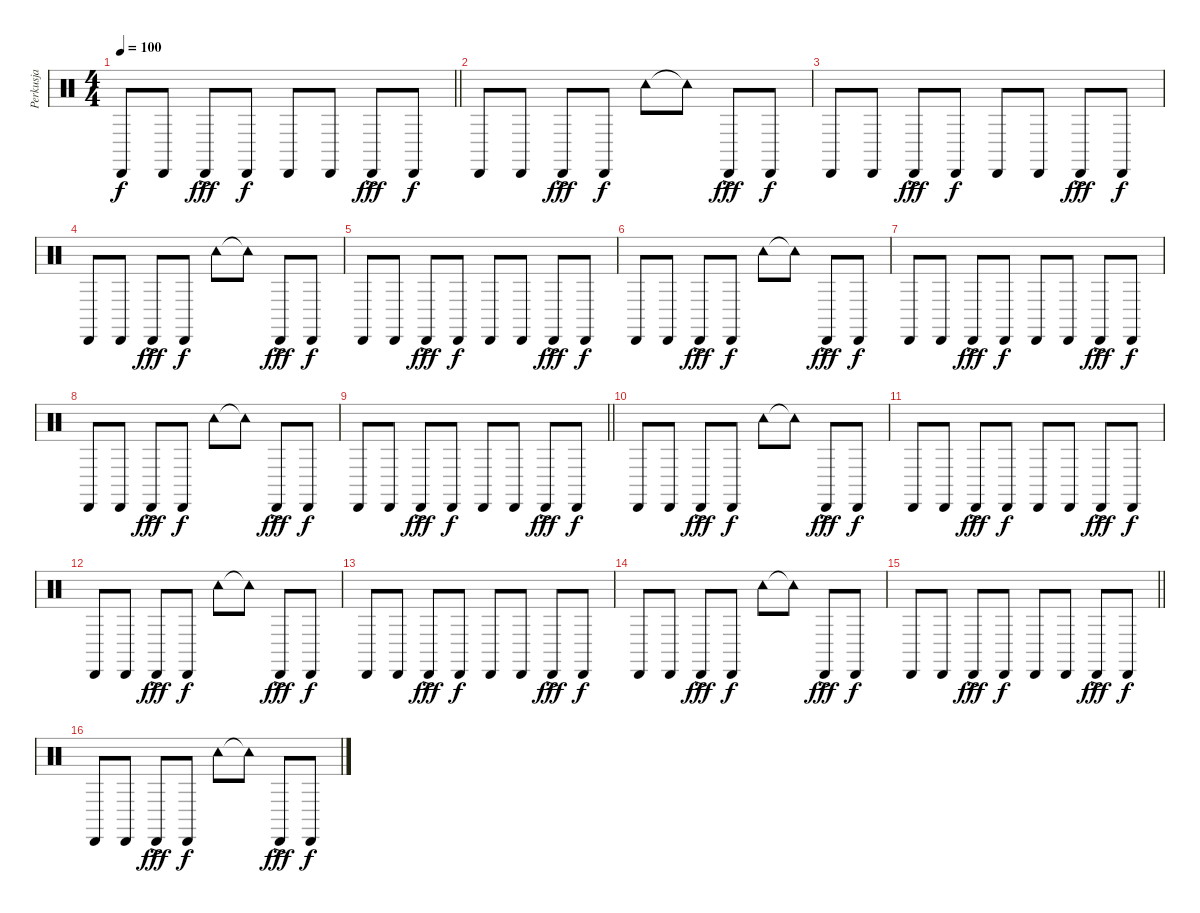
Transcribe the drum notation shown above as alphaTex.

\track ("Perkusja" "Perkusja") {instrument percussion}
\staff {score}
\articulation defaults
\ts (4 4)
\tempo 100
\clef neutral
\barLineRight lightlight
\ks c "Cabasa (hit)".8{dy f} "Cabasa (hit)".8 "Cabasa (hit)"{ac}.8{dy fff} "Cabasa (hit)".8{dy f} "Cabasa (hit)".8 "Cabasa (hit)".8 "Cabasa (hit)"{ac}.8{dy fff} "Cabasa (hit)".8{dy f}
|
"Cabasa (hit)".8 "Cabasa (hit)".8 "Cabasa (hit)"{ac}.8{dy fff} "Cabasa (hit)".8{dy f} "Tambourine (hit)".8 "Tambourine (hit)"{t}.8 "Cabasa (hit)"{ac}.8{dy fff} "Cabasa (hit)".8{dy f} |
"Cabasa (hit)".8 "Cabasa (hit)".8 "Cabasa (hit)"{ac}.8{dy fff} "Cabasa (hit)".8{dy f} "Cabasa (hit)".8 "Cabasa (hit)".8 "Cabasa (hit)"{ac}.8{dy fff} "Cabasa (hit)".8{dy f} |
"Cabasa (hit)".8 "Cabasa (hit)".8 "Cabasa (hit)"{ac}.8{dy fff} "Cabasa (hit)".8{dy f} "Tambourine (hit)".8 "Tambourine (hit)"{t}.8 "Cabasa (hit)"{ac}.8{dy fff} "Cabasa (hit)".8{dy f} |
"Cabasa (hit)".8 "Cabasa (hit)".8 "Cabasa (hit)"{ac}.8{dy fff} "Cabasa (hit)".8{dy f} "Cabasa (hit)".8 "Cabasa (hit)".8 "Cabasa (hit)"{ac}.8{dy fff} "Cabasa (hit)".8{dy f} |
"Cabasa (hit)".8 "Cabasa (hit)".8 "Cabasa (hit)"{ac}.8{dy fff} "Cabasa (hit)".8{dy f} "Tambourine (hit)".8 "Tambourine (hit)"{t}.8 "Cabasa (hit)"{ac}.8{dy fff} "Cabasa (hit)".8{dy f} |
"Cabasa (hit)".8 "Cabasa (hit)".8 "Cabasa (hit)"{ac}.8{dy fff} "Cabasa (hit)".8{dy f} "Cabasa (hit)".8 "Cabasa (hit)".8 "Cabasa (hit)"{ac}.8{dy fff} "Cabasa (hit)".8{dy f} |
"Cabasa (hit)".8 "Cabasa (hit)".8 "Cabasa (hit)"{ac}.8{dy fff} "Cabasa (hit)".8{dy f} "Tambourine (hit)".8 "Tambourine (hit)"{t}.8 "Cabasa (hit)"{ac}.8{dy fff} "Cabasa (hit)".8{dy f} |
\barLineRight lightlight "Cabasa (hit)".8 "Cabasa (hit)".8 "Cabasa (hit)"{ac}.8{dy fff} "Cabasa (hit)".8{dy f} "Cabasa (hit)".8 "Cabasa (hit)".8 "Cabasa (hit)"{ac}.8{dy fff} "Cabasa (hit)".8{dy f}
|
"Cabasa (hit)".8 "Cabasa (hit)".8 "Cabasa (hit)"{ac}.8{dy fff} "Cabasa (hit)".8{dy f} "Tambourine (hit)".8 "Tambourine (hit)"{t}.8 "Cabasa (hit)"{ac}.8{dy fff} "Cabasa (hit)".8{dy f} |
"Cabasa (hit)".8 "Cabasa (hit)".8 "Cabasa (hit)"{ac}.8{dy fff} "Cabasa (hit)".8{dy f} "Cabasa (hit)".8 "Cabasa (hit)".8 "Cabasa (hit)"{ac}.8{dy fff} "Cabasa (hit)".8{dy f} |
"Cabasa (hit)".8 "Cabasa (hit)".8 "Cabasa (hit)"{ac}.8{dy fff} "Cabasa (hit)".8{dy f} "Tambourine (hit)".8 "Tambourine (hit)"{t}.8 "Cabasa (hit)"{ac}.8{dy fff} "Cabasa (hit)".8{dy f} |
"Cabasa (hit)".8 "Cabasa (hit)".8 "Cabasa (hit)"{ac}.8{dy fff} "Cabasa (hit)".8{dy f} "Cabasa (hit)".8 "Cabasa (hit)".8 "Cabasa (hit)"{ac}.8{dy fff} "Cabasa (hit)".8{dy f} |
"Cabasa (hit)".8 "Cabasa (hit)".8 "Cabasa (hit)"{ac}.8{dy fff} "Cabasa (hit)".8{dy f} "Tambourine (hit)".8 "Tambourine (hit)"{t}.8 "Cabasa (hit)"{ac}.8{dy fff} "Cabasa (hit)".8{dy f} |
\barLineRight lightlight "Cabasa (hit)".8 "Cabasa (hit)".8 "Cabasa (hit)"{ac}.8{dy fff} "Cabasa (hit)".8{dy f} "Cabasa (hit)".8 "Cabasa (hit)".8 "Cabasa (hit)"{ac}.8{dy fff} "Cabasa (hit)".8{dy f}
|
"Cabasa (hit)".8 "Cabasa (hit)".8 "Cabasa (hit)"{ac}.8{dy fff} "Cabasa (hit)".8{dy f} "Tambourine (hit)".8 "Tambourine (hit)"{t}.8 "Cabasa (hit)"{ac}.8{dy fff} "Cabasa (hit)".8{dy f}
